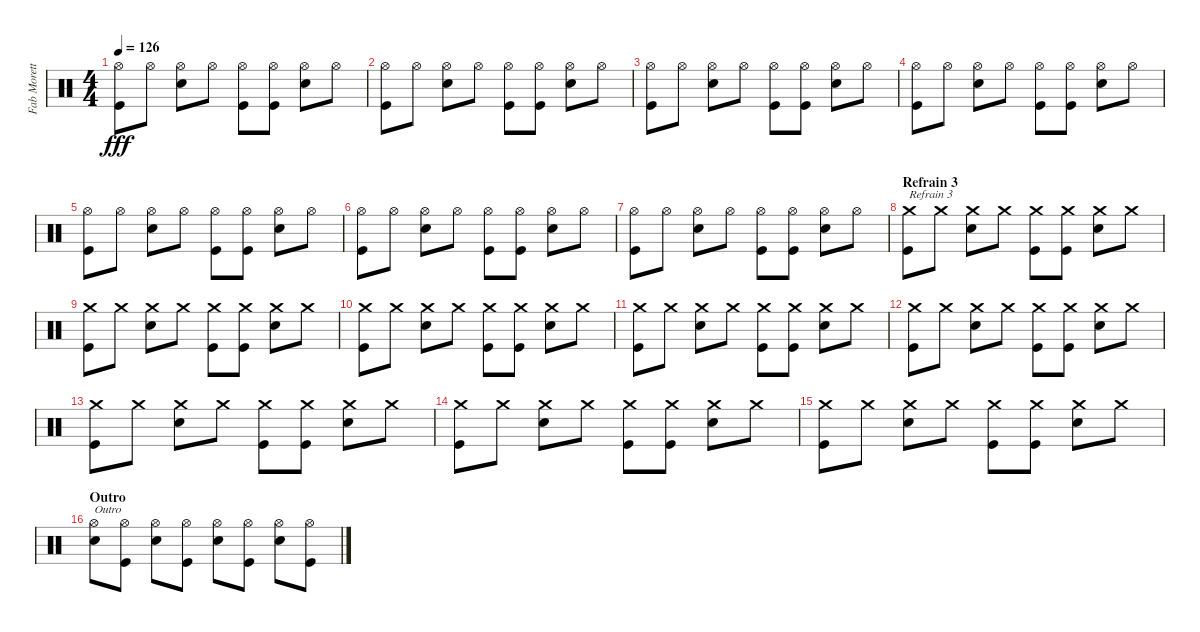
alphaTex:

\track ("Fab Moretti" "Fab Morett") {instrument percussion}
\staff {score}
\articulation defaults
\ts (4 4)
\tempo 126
\clef neutral
\ks c
("Hi-Hat (open)" "Kick (hit)").8{dy fff} "Hi-Hat (open)".8 ("Hi-Hat (open)" "Snare (hit) 2").8 "Hi-Hat (open)".8 ("Hi-Hat (open)" "Kick (hit)").8 ("Hi-Hat (open)" "Kick (hit)").8 ("Hi-Hat (open)" "Snare (hit) 2").8 "Hi-Hat (open)".8 |
("Hi-Hat (open)" "Kick (hit)").8 "Hi-Hat (open)".8 ("Hi-Hat (open)" "Snare (hit) 2").8 "Hi-Hat (open)".8 ("Hi-Hat (open)" "Kick (hit)").8 ("Hi-Hat (open)" "Kick (hit)").8 ("Hi-Hat (open)" "Snare (hit) 2").8 "Hi-Hat (open)".8 |
("Hi-Hat (open)" "Kick (hit)").8 "Hi-Hat (open)".8 ("Hi-Hat (open)" "Snare (hit) 2").8 "Hi-Hat (open)".8 ("Hi-Hat (open)" "Kick (hit)").8 ("Hi-Hat (open)" "Kick (hit)").8 ("Hi-Hat (open)" "Snare (hit) 2").8 "Hi-Hat (open)".8 |
("Hi-Hat (open)" "Kick (hit)").8 "Hi-Hat (open)".8 ("Hi-Hat (open)" "Snare (hit) 2").8 "Hi-Hat (open)".8 ("Hi-Hat (open)" "Kick (hit)").8 ("Hi-Hat (open)" "Kick (hit)").8 ("Hi-Hat (open)" "Snare (hit) 2").8 "Hi-Hat (open)".8 |
("Hi-Hat (open)" "Kick (hit)").8 "Hi-Hat (open)".8 ("Hi-Hat (open)" "Snare (hit) 2").8 "Hi-Hat (open)".8 ("Hi-Hat (open)" "Kick (hit)").8 ("Hi-Hat (open)" "Kick (hit)").8 ("Hi-Hat (open)" "Snare (hit) 2").8 "Hi-Hat (open)".8 |
("Hi-Hat (open)" "Kick (hit)").8 "Hi-Hat (open)".8 ("Hi-Hat (open)" "Snare (hit) 2").8 "Hi-Hat (open)".8 ("Hi-Hat (open)" "Kick (hit)").8 ("Hi-Hat (open)" "Kick (hit)").8 ("Hi-Hat (open)" "Snare (hit) 2").8 "Hi-Hat (open)".8 |
("Hi-Hat (open)" "Kick (hit)").8 "Hi-Hat (open)".8 ("Hi-Hat (open)" "Snare (hit) 2").8 "Hi-Hat (open)".8 ("Hi-Hat (open)" "Kick (hit)").8 ("Hi-Hat (open)" "Kick (hit)").8 ("Hi-Hat (open)" "Snare (hit) 2").8 "Hi-Hat (open)".8 |
\section ("" "Refrain 3")
("Crash medium (hit)" "Kick (hit)").8{txt "Refrain 3"} "Crash medium (hit)".8 ("Crash medium (hit)" "Snare (hit) 2").8 "Crash medium (hit)".8 ("Crash medium (hit)" "Kick (hit)").8 ("Crash medium (hit)" "Kick (hit)").8 ("Crash medium (hit)" "Snare (hit) 2").8 "Crash medium (hit)".8 |
("Crash medium (hit)" "Kick (hit)").8 "Crash medium (hit)".8 ("Crash medium (hit)" "Snare (hit) 2").8 "Crash medium (hit)".8 ("Crash medium (hit)" "Kick (hit)").8 ("Crash medium (hit)" "Kick (hit)").8 ("Crash medium (hit)" "Snare (hit) 2").8 "Crash medium (hit)".8 |
("Crash medium (hit)" "Kick (hit)").8 "Crash medium (hit)".8 ("Crash medium (hit)" "Snare (hit) 2").8 "Crash medium (hit)".8 ("Crash medium (hit)" "Kick (hit)").8 ("Crash medium (hit)" "Kick (hit)").8 ("Crash medium (hit)" "Snare (hit) 2").8 "Crash medium (hit)".8 |
("Crash medium (hit)" "Kick (hit)").8 "Crash medium (hit)".8 ("Crash medium (hit)" "Snare (hit) 2").8 "Crash medium (hit)".8 ("Crash medium (hit)" "Kick (hit)").8 ("Crash medium (hit)" "Kick (hit)").8 ("Crash medium (hit)" "Snare (hit) 2").8 "Crash medium (hit)".8 |
("Crash medium (hit)" "Kick (hit)").8 "Crash medium (hit)".8 ("Crash medium (hit)" "Snare (hit) 2").8 "Crash medium (hit)".8 ("Crash medium (hit)" "Kick (hit)").8 ("Crash medium (hit)" "Kick (hit)").8 ("Crash medium (hit)" "Snare (hit) 2").8 "Crash medium (hit)".8 |
("Crash medium (hit)" "Kick (hit)").8 "Crash medium (hit)".8 ("Crash medium (hit)" "Snare (hit) 2").8 "Crash medium (hit)".8 ("Crash medium (hit)" "Kick (hit)").8 ("Crash medium (hit)" "Kick (hit)").8 ("Crash medium (hit)" "Snare (hit) 2").8 "Crash medium (hit)".8 |
("Crash medium (hit)" "Kick (hit)").8 "Crash medium (hit)".8 ("Crash medium (hit)" "Snare (hit) 2").8 "Crash medium (hit)".8 ("Crash medium (hit)" "Kick (hit)").8 ("Crash medium (hit)" "Kick (hit)").8 ("Crash medium (hit)" "Snare (hit) 2").8 "Crash medium (hit)".8 |
("Crash medium (hit)" "Kick (hit)").8 "Crash medium (hit)".8 ("Crash medium (hit)" "Snare (hit) 2").8 "Crash medium (hit)".8 ("Crash medium (hit)" "Kick (hit)").8 ("Crash medium (hit)" "Kick (hit)").8 ("Crash medium (hit)" "Snare (hit) 2").8 "Crash medium (hit)".8 |
\section ("" "Outro")
("Hi-Hat (open)" "Snare (hit) 2").8{txt "Outro"} ("Hi-Hat (open)" "Kick (hit)").8 ("Hi-Hat (open)" "Snare (hit) 2").8 ("Hi-Hat (open)" "Kick (hit)").8 ("Hi-Hat (open)" "Snare (hit) 2").8 ("Hi-Hat (open)" "Kick (hit)").8 ("Hi-Hat (open)" "Snare (hit) 2").8 ("Hi-Hat (open)" "Kick (hit)").8
